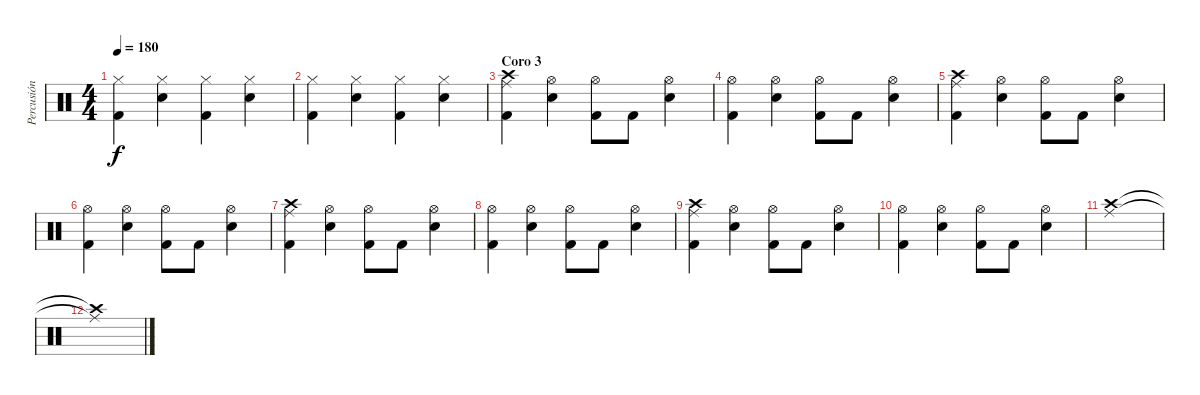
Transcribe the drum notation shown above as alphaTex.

\track ("Percusión" "Percusión") {instrument percussion}
\staff {score}
\articulation defaults
\ts (4 4)
\tempo 180
\clef neutral
\ks c
("Hi-Hat (closed)" "Kick (hit) 2").4{dy f} ("Hi-Hat (closed)" "Electric Snare (hit)").4 ("Hi-Hat (closed)" "Kick (hit) 2").4 ("Hi-Hat (closed)" "Electric Snare (hit)").4 |
("Hi-Hat (closed)" "Kick (hit) 2").4 ("Hi-Hat (closed)" "Electric Snare (hit)").4 ("Hi-Hat (closed)" "Kick (hit) 2").4 ("Hi-Hat (closed)" "Electric Snare (hit)").4 |
\section ("" "Coro 3")
("Ride (middle)" "Crash high (hit)" "Kick (hit) 2").4 ("Hi-Hat (open)" "Electric Snare (hit)").4 ("Hi-Hat (open)" "Kick (hit) 2").8 "Kick (hit) 2".8 ("Hi-Hat (open)" "Electric Snare (hit)").4 |
("Hi-Hat (open)" "Kick (hit) 2").4 ("Hi-Hat (open)" "Electric Snare (hit)").4 ("Hi-Hat (open)" "Kick (hit) 2").8 "Kick (hit) 2".8 ("Hi-Hat (open)" "Electric Snare (hit)").4 |
("Ride (middle)" "Crash high (hit)" "Kick (hit) 2").4 ("Hi-Hat (open)" "Electric Snare (hit)").4 ("Hi-Hat (open)" "Kick (hit) 2").8 "Kick (hit) 2".8 ("Hi-Hat (open)" "Electric Snare (hit)").4 |
("Hi-Hat (open)" "Kick (hit) 2").4 ("Hi-Hat (open)" "Electric Snare (hit)").4 ("Hi-Hat (open)" "Kick (hit) 2").8 "Kick (hit) 2".8 ("Hi-Hat (open)" "Electric Snare (hit)").4 |
("Ride (middle)" "Crash high (hit)" "Kick (hit) 2").4 ("Hi-Hat (open)" "Electric Snare (hit)").4 ("Hi-Hat (open)" "Kick (hit) 2").8 "Kick (hit) 2".8 ("Hi-Hat (open)" "Electric Snare (hit)").4 |
("Hi-Hat (open)" "Kick (hit) 2").4 ("Hi-Hat (open)" "Electric Snare (hit)").4 ("Hi-Hat (open)" "Kick (hit) 2").8 "Kick (hit) 2".8 ("Hi-Hat (open)" "Electric Snare (hit)").4 |
("Ride (middle)" "Crash high (hit)" "Kick (hit) 2").4 ("Hi-Hat (open)" "Electric Snare (hit)").4 ("Hi-Hat (open)" "Kick (hit) 2").8 "Kick (hit) 2".8 ("Hi-Hat (open)" "Electric Snare (hit)").4 |
("Hi-Hat (open)" "Kick (hit) 2").4 ("Hi-Hat (open)" "Electric Snare (hit)").4 ("Hi-Hat (open)" "Kick (hit) 2").8 "Kick (hit) 2".8 ("Hi-Hat (open)" "Electric Snare (hit)").4 |
("Ride (middle)" "Crash high (hit)").1 |
("Ride (middle)"{t} "Crash high (hit)"{t}).1
